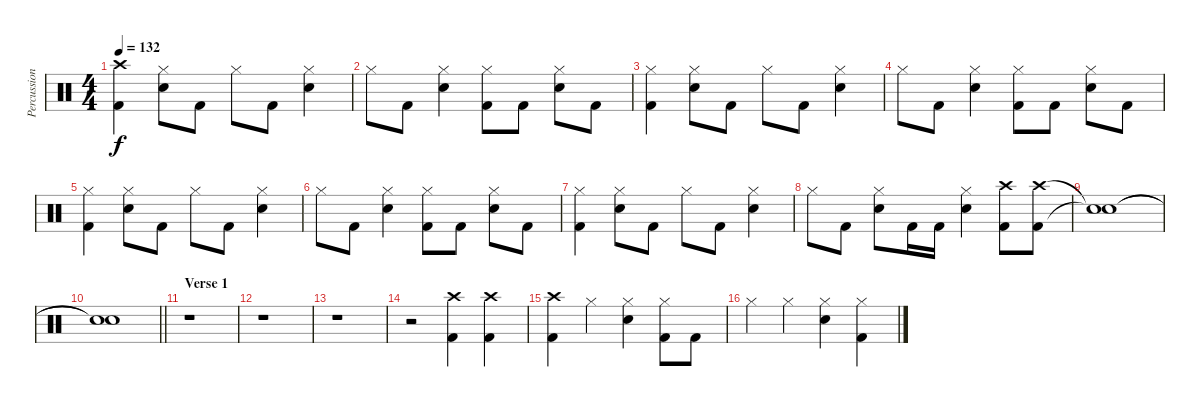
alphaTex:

\track ("Percussion" "Percussion") {instrument percussion}
\staff {score}
\articulation defaults
\ts (4 4)
\section ("" "")
\tempo 132
\clef neutral
\ks c
("Crash high (hit)" "Kick (hit) 2").4{dy f} ("Hi-Hat (closed)" "Snare (hit) 2").8 "Kick (hit) 2".8 "Hi-Hat (closed)".8 "Kick (hit) 2".8 ("Hi-Hat (closed)" "Snare (hit) 2").4 |
"Hi-Hat (closed)".8 "Kick (hit) 2".8 ("Hi-Hat (closed)" "Snare (hit) 2").4 ("Hi-Hat (closed)" "Kick (hit) 2").8 "Kick (hit) 2".8 ("Hi-Hat (closed)" "Snare (hit) 2").8 "Kick (hit) 2".8 |
("Hi-Hat (closed)" "Kick (hit) 2").4 ("Hi-Hat (closed)" "Snare (hit) 2").8 "Kick (hit) 2".8 "Hi-Hat (closed)".8 "Kick (hit) 2".8 ("Hi-Hat (closed)" "Snare (hit) 2").4 |
"Hi-Hat (closed)".8 "Kick (hit) 2".8 ("Hi-Hat (closed)" "Snare (hit) 2").4 ("Hi-Hat (closed)" "Kick (hit) 2").8 "Kick (hit) 2".8 ("Hi-Hat (closed)" "Snare (hit) 2").8 "Kick (hit) 2".8 |
("Hi-Hat (closed)" "Kick (hit) 2").4 ("Hi-Hat (closed)" "Snare (hit) 2").8 "Kick (hit) 2".8 "Hi-Hat (closed)".8 "Kick (hit) 2".8 ("Hi-Hat (closed)" "Snare (hit) 2").4 |
"Hi-Hat (closed)".8 "Kick (hit) 2".8 ("Hi-Hat (closed)" "Snare (hit) 2").4 ("Hi-Hat (closed)" "Kick (hit) 2").8 "Kick (hit) 2".8 ("Hi-Hat (closed)" "Snare (hit) 2").8 "Kick (hit) 2".8 |
("Hi-Hat (closed)" "Kick (hit) 2").4 ("Hi-Hat (closed)" "Snare (hit) 2").8 "Kick (hit) 2".8 "Hi-Hat (closed)".8 "Kick (hit) 2".8 ("Hi-Hat (closed)" "Snare (hit) 2").4 |
"Hi-Hat (closed)".8 "Kick (hit) 2".8 ("Hi-Hat (closed)" "Snare (hit) 2").8 "Kick (hit) 2".16 "Kick (hit) 2".16 ("Hi-Hat (closed)" "Snare (hit) 2").4 ("Crash high (hit)" "Kick (hit) 2").8 ("Crash high (hit)" "Kick (hit) 2").8 |
("Snare (hit)"{t} "Snare (hit)"{t}).1 |
\barLineRight lightlight
("Snare (hit)"{t} "Snare (hit)"{t}).1 |
\section ("" "Verse 1")
r.1 |
r.1 |
r.1 |
r.2 ("Crash high (hit)" "Kick (hit) 2").4 ("Crash high (hit)" "Kick (hit) 2").4 |
("Crash high (hit)" "Kick (hit) 2").4 "Hi-Hat (closed)".4 ("Hi-Hat (closed)" "Snare (hit) 2").4 ("Hi-Hat (closed)" "Kick (hit) 2").8 "Kick (hit) 2".8 |
"Hi-Hat (closed)".4 "Hi-Hat (closed)".4 ("Hi-Hat (closed)" "Snare (hit) 2").4 ("Hi-Hat (closed)" "Kick (hit) 2").4
